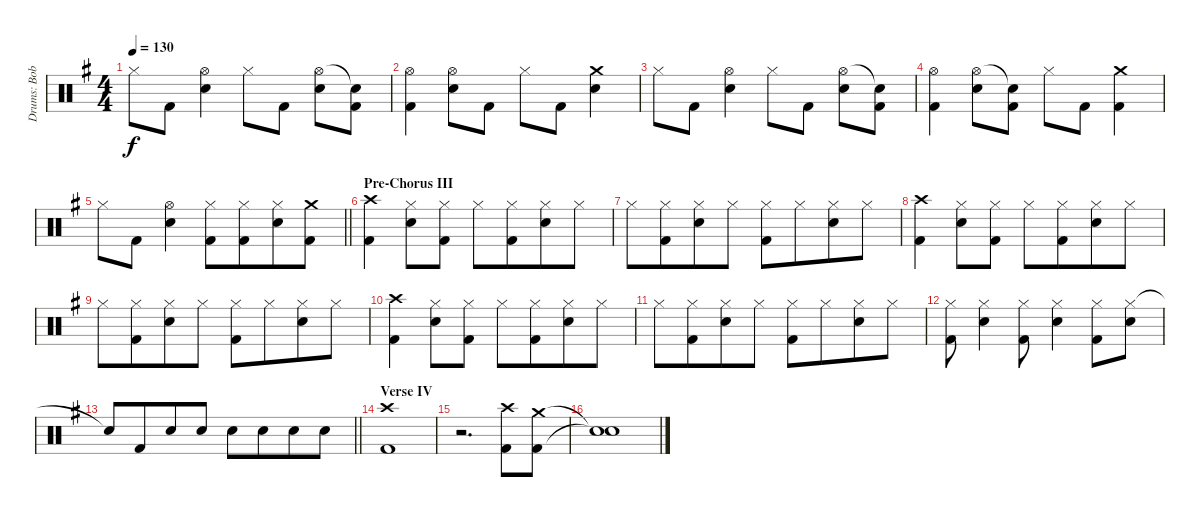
\track ("Drums: Bobby" "Drums: Bob") {instrument percussion}
\staff {score}
\articulation defaults
\ts (4 4)
\tempo 130
\clef neutral
\ks g "Hi-Hat (closed)".8{dy f} "Kick (hit) 2".8
("Hi-Hat (open)" "Snare (hit) 2").4 "Hi-Hat (closed)".8 "Kick (hit) 2".8 ("Hi-Hat (open)" "Snare (hit) 2").8 ("Snare (hit)"{t} "Kick (hit) 2").8 |
("Hi-Hat (open)" "Kick (hit) 2").4 ("Hi-Hat (open)" "Snare (hit) 2").8 "Kick (hit) 2".8 "Hi-Hat (closed)".8 "Kick (hit) 2".8 ("Crash medium (hit)" "Snare (hit) 2").4 |
"Hi-Hat (closed)".8 "Kick (hit) 2".8 ("Hi-Hat (open)" "Snare (hit) 2").4 "Hi-Hat (closed)".8 "Kick (hit) 2".8 ("Hi-Hat (open)" "Snare (hit) 2").8 ("Snare (hit)"{t} "Kick (hit) 2").8 |
("Hi-Hat (open)" "Kick (hit) 2").4 ("Hi-Hat (open)" "Snare (hit) 2").8 ("Snare (hit)"{t} "Kick (hit) 2").8 "Hi-Hat (closed)".8 "Kick (hit) 2".8 ("Crash medium (hit)" "Kick (hit) 2").4 |
\barLineRight lightlight "Hi-Hat (closed)".8 "Kick (hit) 2".8
("Hi-Hat (open)" "Snare (hit) 2").4 ("Hi-Hat (closed)" "Kick (hit) 2").8 ("Hi-Hat (closed)" "Kick (hit) 2").8{beam merge} ("Hi-Hat (closed)" "Snare (hit) 2").8 ("Crash medium (hit)" "Kick (hit) 2").8 |
\section ("" "Pre-Chorus III")
("Crash high (hit)" "Kick (hit) 2").4{beam merge} ("Hi-Hat (closed)" "Snare (hit) 2").8 ("Hi-Hat (closed)" "Kick (hit) 2").8 "Hi-Hat (closed)".8 ("Hi-Hat (closed)" "Kick (hit) 2").8{beam merge} ("Hi-Hat (closed)" "Snare (hit) 2").8 "Hi-Hat (closed)".8 |
"Hi-Hat (closed)".8 ("Hi-Hat (closed)" "Kick (hit) 2").8{beam merge} ("Hi-Hat (closed)" "Snare (hit) 2").8 "Hi-Hat (closed)".8 ("Hi-Hat (closed)" "Kick (hit) 2").8 "Hi-Hat (closed)".8{beam merge} ("Hi-Hat (closed)" "Snare (hit) 2").8 "Hi-Hat (closed)".8 |
("Crash high (hit)" "Kick (hit) 2").4{beam merge} ("Hi-Hat (closed)" "Snare (hit) 2").8 ("Hi-Hat (closed)" "Kick (hit) 2").8 "Hi-Hat (closed)".8 ("Hi-Hat (closed)" "Kick (hit) 2").8{beam merge} ("Hi-Hat (closed)" "Snare (hit) 2").8 "Hi-Hat (closed)".8 |
"Hi-Hat (closed)".8 ("Hi-Hat (closed)" "Kick (hit) 2").8{beam merge} ("Hi-Hat (closed)" "Snare (hit) 2").8 "Hi-Hat (closed)".8 ("Hi-Hat (closed)" "Kick (hit) 2").8 "Hi-Hat (closed)".8{beam merge} ("Hi-Hat (closed)" "Snare (hit) 2").8 "Hi-Hat (closed)".8 |
("Crash high (hit)" "Kick (hit) 2").4{beam merge} ("Hi-Hat (closed)" "Snare (hit) 2").8 ("Hi-Hat (closed)" "Kick (hit) 2").8 "Hi-Hat (closed)".8 ("Hi-Hat (closed)" "Kick (hit) 2").8{beam merge} ("Hi-Hat (closed)" "Snare (hit) 2").8 "Hi-Hat (closed)".8 |
"Hi-Hat (closed)".8 ("Hi-Hat (closed)" "Kick (hit) 2").8{beam merge} ("Hi-Hat (closed)" "Snare (hit) 2").8 "Hi-Hat (closed)".8 ("Hi-Hat (closed)" "Kick (hit) 2").8 "Hi-Hat (closed)".8{beam merge} ("Hi-Hat (closed)" "Snare (hit) 2").8 "Hi-Hat (closed)".8 |
("Hi-Hat (closed)" "Kick (hit) 2").8 ("Hi-Hat (closed)" "Snare (hit) 2").4 ("Hi-Hat (closed)" "Kick (hit) 2").8 ("Hi-Hat (closed)" "Snare (hit) 2").4 ("Hi-Hat (closed)" "Kick (hit) 2").8 ("Hi-Hat (closed)" "Snare (hit) 2").8 |
\barLineRight lightlight "Snare (hit)"{t}.8 "Kick (hit) 2".8{beam merge} "Snare (hit) 2".8 "Snare (hit) 2".8 "Snare (hit) 2".8 "Snare (hit) 2".8{beam merge} "Snare (hit) 2".8 "Snare (hit) 2".8
|
\section ("" "Verse IV")
("Crash high (hit)" "Kick (hit) 2").1 |
r.2{d} ("Crash high (hit)" "Kick (hit) 2").8 ("Crash medium (hit)" "Kick (hit) 2").8 |
("Snare (hit)"{t} "Snare (hit)"{t}).1
